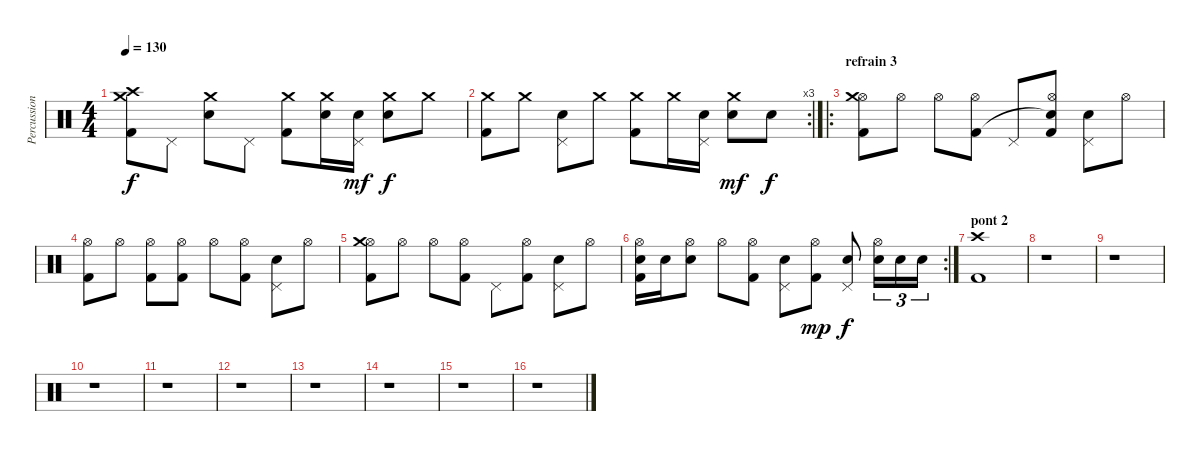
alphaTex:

\track ("Percussions" "Percussion") {instrument percussion}
\staff {score}
\articulation defaults
\ts (4 4)
\tempo 130
\clef neutral
\ks c
("Crash medium (hit)" "Crash high (hit)" "Kick (hit) 2").8{dy f} "Pedal Hi-Hat (hit)".8 ("Crash medium (hit)" "Electric Snare (hit)").8 "Pedal Hi-Hat (hit)".8 ("Crash medium (hit)" "Kick (hit) 2").8 ("Crash medium (hit)" "Electric Snare (hit)").16 ("Pedal Hi-Hat (hit)" "Electric Snare (hit)").16{dy mf} ("Crash medium (hit)" "Electric Snare (hit)").8{dy f} "Crash medium (hit)".8 |
\rc 3
("Crash medium (hit)" "Kick (hit) 2").8 "Crash medium (hit)".8 ("Pedal Hi-Hat (hit)" "Electric Snare (hit)").8 "Crash medium (hit)".8 ("Crash medium (hit)" "Kick (hit) 2").8 "Crash medium (hit)".16 ("Pedal Hi-Hat (hit)" "Electric Snare (hit)").16 ("Crash medium (hit)" "Electric Snare (hit)").8{dy mf} "Electric Snare (hit)".8{dy f} |
\ro
\section ("" "refrain 3")
("Hi-Hat (open)" "Crash medium (hit)" "Kick (hit) 2").8 "Hi-Hat (open)".8 "Hi-Hat (open)".8 ("Hi-Hat (open)" "Kick (hit) 2").8 "Pedal Hi-Hat (hit)".8 ("Hi-Hat (open)" "Snare (hit)"{t} "Kick (hit) 2").8 ("Pedal Hi-Hat (hit)" "Electric Snare (hit)").8 "Hi-Hat (open)".8 |
("Hi-Hat (open)" "Kick (hit) 2").8 "Hi-Hat (open)".8 ("Hi-Hat (open)" "Kick (hit) 2").8 ("Hi-Hat (open)" "Kick (hit) 2").8 "Hi-Hat (open)".8 ("Hi-Hat (open)" "Kick (hit) 2").8 ("Pedal Hi-Hat (hit)" "Electric Snare (hit)").8 "Hi-Hat (open)".8 |
("Hi-Hat (open)" "Crash medium (hit)" "Kick (hit) 2").8 "Hi-Hat (open)".8 "Hi-Hat (open)".8 ("Hi-Hat (open)" "Kick (hit) 2").8 "Pedal Hi-Hat (hit)".8 ("Hi-Hat (open)" "Kick (hit) 2").8 ("Pedal Hi-Hat (hit)" "Electric Snare (hit)").8 "Hi-Hat (open)".8 |
\rc 2
("Hi-Hat (open)" "Electric Snare (hit)" "Kick (hit) 2").16 "Electric Snare (hit)".16 ("Hi-Hat (open)" "Electric Snare (hit)").8 "Hi-Hat (open)".8 ("Hi-Hat (open)" "Kick (hit) 2").8 ("Pedal Hi-Hat (hit)" "Electric Snare (hit)").8 ("Hi-Hat (open)" "Kick (hit) 2").8{dy mp} ("Pedal Hi-Hat (hit)" "Electric Snare (hit)").8{dy f} ("Hi-Hat (open)" "Electric Snare (hit)").16{tu (3 2)} "Electric Snare (hit)".16{tu (3 2)} "Electric Snare (hit)".16{tu (3 2)} |
\section ("" "pont 2")
("Crash high (hit)" "Kick (hit) 2").1 |
r.1 |
r.1 |
r.1 |
r.1 |
r.1 |
r.1 |
r.1 |
r.1 |
r.1
